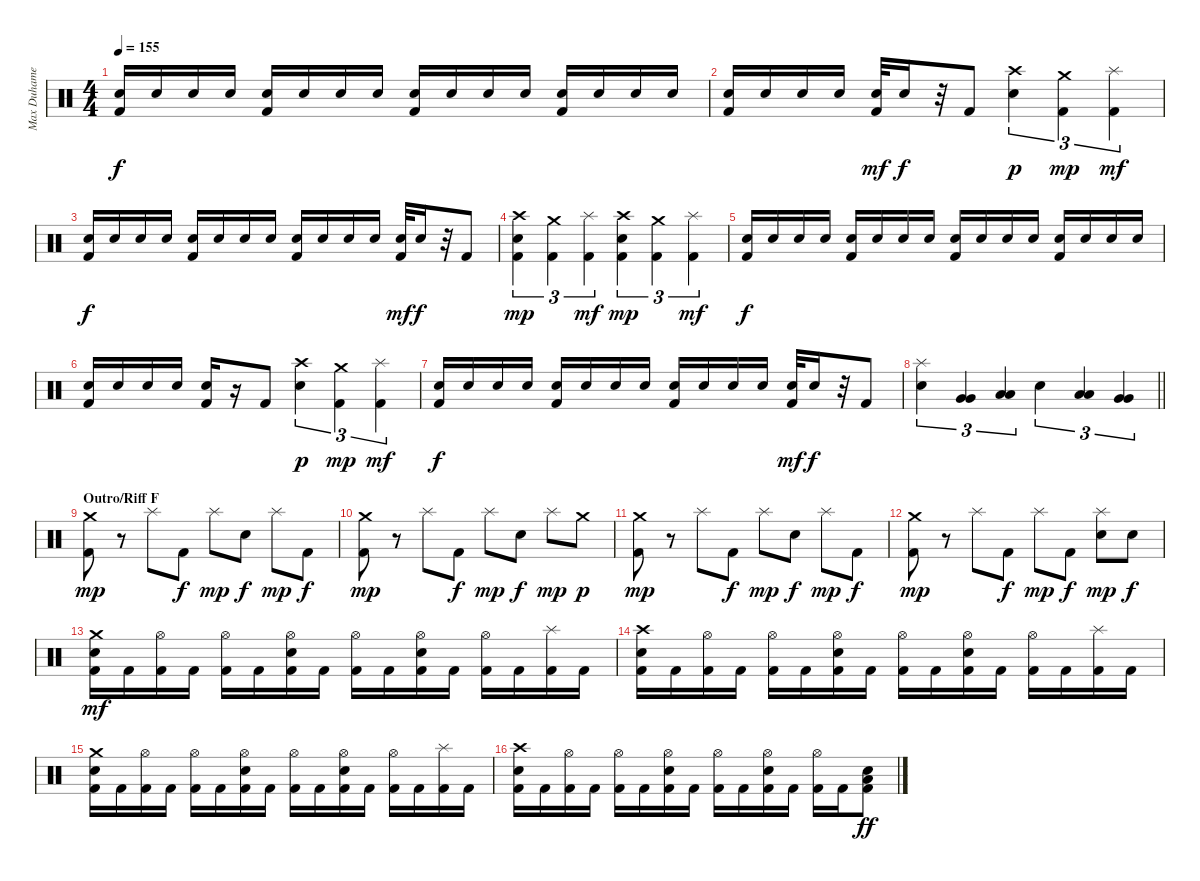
\track ("Max Duhamel" "Max Duhame") {instrument percussion}
\staff {score}
\articulation defaults
\ts (4 4)
\tempo 155
\clef neutral
\ks c
("Electric Snare (hit)" "Kick (hit) 2").16{dy f} "Electric Snare (hit)".16 "Electric Snare (hit)".16 "Electric Snare (hit)".16 ("Electric Snare (hit)" "Kick (hit) 2").16 "Electric Snare (hit)".16 "Electric Snare (hit)".16 "Electric Snare (hit)".16 ("Electric Snare (hit)" "Kick (hit) 2").16 "Electric Snare (hit)".16 "Electric Snare (hit)".16 "Electric Snare (hit)".16 ("Electric Snare (hit)" "Kick (hit) 2").16 "Electric Snare (hit)".16 "Electric Snare (hit)".16 "Electric Snare (hit)".16 |
("Electric Snare (hit)" "Kick (hit) 2").16 "Electric Snare (hit)".16 "Electric Snare (hit)".16 "Electric Snare (hit)".16 ("Electric Snare (hit)" "Kick (hit) 2").32{dy mf} "Electric Snare (hit)".16{dy f} r.32 "Kick (hit) 2".8 ("Crash high (hit)" "Electric Snare (hit)").4{tu (3 2) dy p} ("Crash medium (hit)" "Kick (hit) 2").4{tu (3 2) dy mp} ("Splash (hit)" "Kick (hit) 2").4{tu (3 2) dy mf} |
("Electric Snare (hit)" "Kick (hit) 2").16{dy f} "Electric Snare (hit)".16 "Electric Snare (hit)".16 "Electric Snare (hit)".16 ("Electric Snare (hit)" "Kick (hit) 2").16 "Electric Snare (hit)".16 "Electric Snare (hit)".16 "Electric Snare (hit)".16 ("Electric Snare (hit)" "Kick (hit) 2").16 "Electric Snare (hit)".16 "Electric Snare (hit)".16 "Electric Snare (hit)".16 ("Electric Snare (hit)" "Kick (hit) 2").32{dy mf} "Electric Snare (hit)".16{dy f} r.32 "Kick (hit) 2".8 |
("Crash high (hit)" "Electric Snare (hit)" "Kick (hit) 2").4{tu (3 2) dy mp} ("Crash medium (hit)" "Kick (hit) 2").4{tu (3 2)} ("Splash (hit)" "Kick (hit) 2").4{tu (3 2) dy mf} ("Crash high (hit)" "Electric Snare (hit)" "Kick (hit) 2").4{tu (3 2) dy mp} ("Crash medium (hit)" "Kick (hit) 2").4{tu (3 2)} ("Splash (hit)" "Kick (hit) 2").4{tu (3 2) dy mf} |
("Electric Snare (hit)" "Kick (hit) 2").16{dy f} "Electric Snare (hit)".16 "Electric Snare (hit)".16 "Electric Snare (hit)".16 ("Electric Snare (hit)" "Kick (hit) 2").16 "Electric Snare (hit)".16 "Electric Snare (hit)".16 "Electric Snare (hit)".16 ("Electric Snare (hit)" "Kick (hit) 2").16 "Electric Snare (hit)".16 "Electric Snare (hit)".16 "Electric Snare (hit)".16 ("Electric Snare (hit)" "Kick (hit) 2").16 "Electric Snare (hit)".16 "Electric Snare (hit)".16 "Electric Snare (hit)".16 |
("Electric Snare (hit)" "Kick (hit) 2").16 "Electric Snare (hit)".16 "Electric Snare (hit)".16 "Electric Snare (hit)".16 ("Electric Snare (hit)" "Kick (hit) 2").16 r.16 "Kick (hit) 2".8 ("Crash high (hit)" "Electric Snare (hit)").4{tu (3 2) dy p} ("Crash medium (hit)" "Kick (hit) 2").4{tu (3 2) dy mp} ("Splash (hit)" "Kick (hit) 2").4{tu (3 2) dy mf} |
("Electric Snare (hit)" "Kick (hit) 2").16{dy f} "Electric Snare (hit)".16 "Electric Snare (hit)".16 "Electric Snare (hit)".16 ("Electric Snare (hit)" "Kick (hit) 2").16 "Electric Snare (hit)".16 "Electric Snare (hit)".16 "Electric Snare (hit)".16 ("Electric Snare (hit)" "Kick (hit) 2").16 "Electric Snare (hit)".16 "Electric Snare (hit)".16 "Electric Snare (hit)".16 ("Electric Snare (hit)" "Kick (hit) 2").32{dy mf} "Electric Snare (hit)".16{dy f} r.32 "Kick (hit) 2".8 |
\barLineRight lightlight
("Splash (hit)" "Electric Snare (hit)").4{tu (3 2)} ("Very Low Tom (hit)" "Very Low Tom (hit)").4{tu (3 2)} ("Low Floor Tom (hit)" "Low Floor Tom (hit)").4{tu (3 2)} "Electric Snare (hit)".4{tu (3 2)} ("Low Tom (hit)" "Low Tom (hit)").4{tu (3 2)} ("Very Low Tom (hit)" "Very Low Tom (hit)").4{tu (3 2)} |
\section ("" "Outro/Riff F")
("Crash medium (hit)" "Kick (hit) 2").8{dy mp} r.8 "Splash (hit)".8 "Kick (hit) 2".8{dy f} "Splash (hit)".8{dy mp} "Electric Snare (hit)".8{dy f} "Splash (hit)".8{dy mp} "Kick (hit) 2".8{dy f} |
("Crash medium (hit)" "Kick (hit) 2").8{dy mp} r.8 "Splash (hit)".8 "Kick (hit) 2".8{dy f} "Splash (hit)".8{dy mp} "Electric Snare (hit)".8{dy f} "Splash (hit)".8{dy mp} "Crash medium (hit)".8{dy p} |
("Crash medium (hit)" "Kick (hit) 2").8{dy mp} r.8 "Splash (hit)".8 "Kick (hit) 2".8{dy f} "Splash (hit)".8{dy mp} "Electric Snare (hit)".8{dy f} "Splash (hit)".8{dy mp} "Kick (hit) 2".8{dy f} |
("Crash medium (hit)" "Kick (hit) 2").8{dy mp} r.8 "Splash (hit)".8 "Kick (hit) 2".8{dy f} "Splash (hit)".8{dy mp} "Kick (hit) 2".8{dy f} ("Splash (hit)" "Electric Snare (hit)").8{dy mp} "Electric Snare (hit)".8{dy f} |
("Crash medium (hit)" "Electric Snare (hit)" "Kick (hit) 2").16{dy mf} "Kick (hit) 2".16 ("Hi-Hat (open)" "Kick (hit) 2").16 "Kick (hit) 2".16 ("Hi-Hat (open)" "Kick (hit) 2").16 "Kick (hit) 2".16 ("Hi-Hat (open)" "Electric Snare (hit)" "Kick (hit) 2").16 "Kick (hit) 2".16 ("Hi-Hat (open)" "Kick (hit) 2").16 "Kick (hit) 2".16 ("Hi-Hat (open)" "Electric Snare (hit)" "Kick (hit) 2").16 "Kick (hit) 2".16 ("Hi-Hat (open)" "Kick (hit) 2").16 "Kick (hit) 2".16 ("Splash (hit)" "Kick (hit) 2").16 "Kick (hit) 2".16 |
("Crash high (hit)" "Electric Snare (hit)" "Kick (hit) 2").16 "Kick (hit) 2".16 ("Hi-Hat (open)" "Kick (hit) 2").16 "Kick (hit) 2".16 ("Hi-Hat (open)" "Kick (hit) 2").16 "Kick (hit) 2".16 ("Hi-Hat (open)" "Electric Snare (hit)" "Kick (hit) 2").16 "Kick (hit) 2".16 ("Hi-Hat (open)" "Kick (hit) 2").16 "Kick (hit) 2".16 ("Hi-Hat (open)" "Electric Snare (hit)" "Kick (hit) 2").16 "Kick (hit) 2".16 ("Hi-Hat (open)" "Kick (hit) 2").16 "Kick (hit) 2".16 ("Splash (hit)" "Kick (hit) 2").16 "Kick (hit) 2".16 |
("Crash medium (hit)" "Electric Snare (hit)" "Kick (hit) 2").16 "Kick (hit) 2".16 ("Hi-Hat (open)" "Kick (hit) 2").16 "Kick (hit) 2".16 ("Hi-Hat (open)" "Kick (hit) 2").16 "Kick (hit) 2".16 ("Hi-Hat (open)" "Electric Snare (hit)" "Kick (hit) 2").16 "Kick (hit) 2".16 ("Hi-Hat (open)" "Kick (hit) 2").16 "Kick (hit) 2".16 ("Hi-Hat (open)" "Electric Snare (hit)" "Kick (hit) 2").16 "Kick (hit) 2".16 ("Hi-Hat (open)" "Kick (hit) 2").16 "Kick (hit) 2".16 ("Splash (hit)" "Kick (hit) 2").16 "Kick (hit) 2".16 |
("Crash high (hit)" "Electric Snare (hit)" "Kick (hit) 2").16 "Kick (hit) 2".16 ("Hi-Hat (open)" "Kick (hit) 2").16 "Kick (hit) 2".16 ("Hi-Hat (open)" "Kick (hit) 2").16 "Kick (hit) 2".16 ("Hi-Hat (open)" "Electric Snare (hit)" "Kick (hit) 2").16 "Kick (hit) 2".16 ("Hi-Hat (open)" "Kick (hit) 2").16 "Kick (hit) 2".16 ("Hi-Hat (open)" "Electric Snare (hit)" "Kick (hit) 2").16 "Kick (hit) 2".16 ("Hi-Hat (open)" "Kick (hit) 2").16 "Kick (hit) 2".16 ("Electric Snare (hit)" "Low Tom (hit)" "Kick (hit) 2").8{dy ff}
